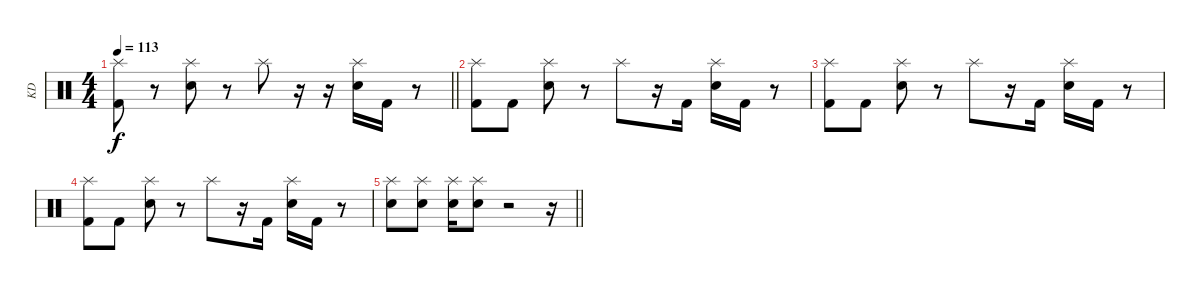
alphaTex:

\track ("KD" "KD") {instrument percussion}
\staff {score}
\articulation defaults
\ts (4 4)
\tempo 113
\clef neutral
\barLineRight lightlight
\ks c
("Kick (hit) 2" "Splash (hit)").8{dy f} r.8 ("Electric Snare (hit)" "Splash (hit)").8 r.8 "Splash (hit)".8 r.16 r.16 ("Electric Snare (hit)" "Splash (hit)").16 "Kick (hit) 2".16 r.8 |
("Kick (hit) 2" "Splash (hit)").8 "Kick (hit) 2".8 ("Electric Snare (hit)" "Splash (hit)").8 r.8 "Splash (hit)".8 r.16 "Kick (hit) 2".16 ("Electric Snare (hit)" "Splash (hit)").16 "Kick (hit) 2".16 r.8 |
("Kick (hit) 2" "Splash (hit)").8 "Kick (hit) 2".8 ("Electric Snare (hit)" "Splash (hit)").8 r.8 "Splash (hit)".8 r.16 "Kick (hit) 2".16 ("Electric Snare (hit)" "Splash (hit)").16 "Kick (hit) 2".16 r.8 |
("Kick (hit) 2" "Splash (hit)").8 "Kick (hit) 2".8 ("Electric Snare (hit)" "Splash (hit)").8 r.8 "Splash (hit)".8 r.16 "Kick (hit) 2".16 ("Electric Snare (hit)" "Splash (hit)").16 "Kick (hit) 2".16 r.8 |
\barLineRight lightlight
("Electric Snare (hit)" "Splash (hit)").8 ("Electric Snare (hit)" "Splash (hit)").8 ("Electric Snare (hit)" "Splash (hit)").16 ("Electric Snare (hit)" "Splash (hit)").8 r.2 r.16
